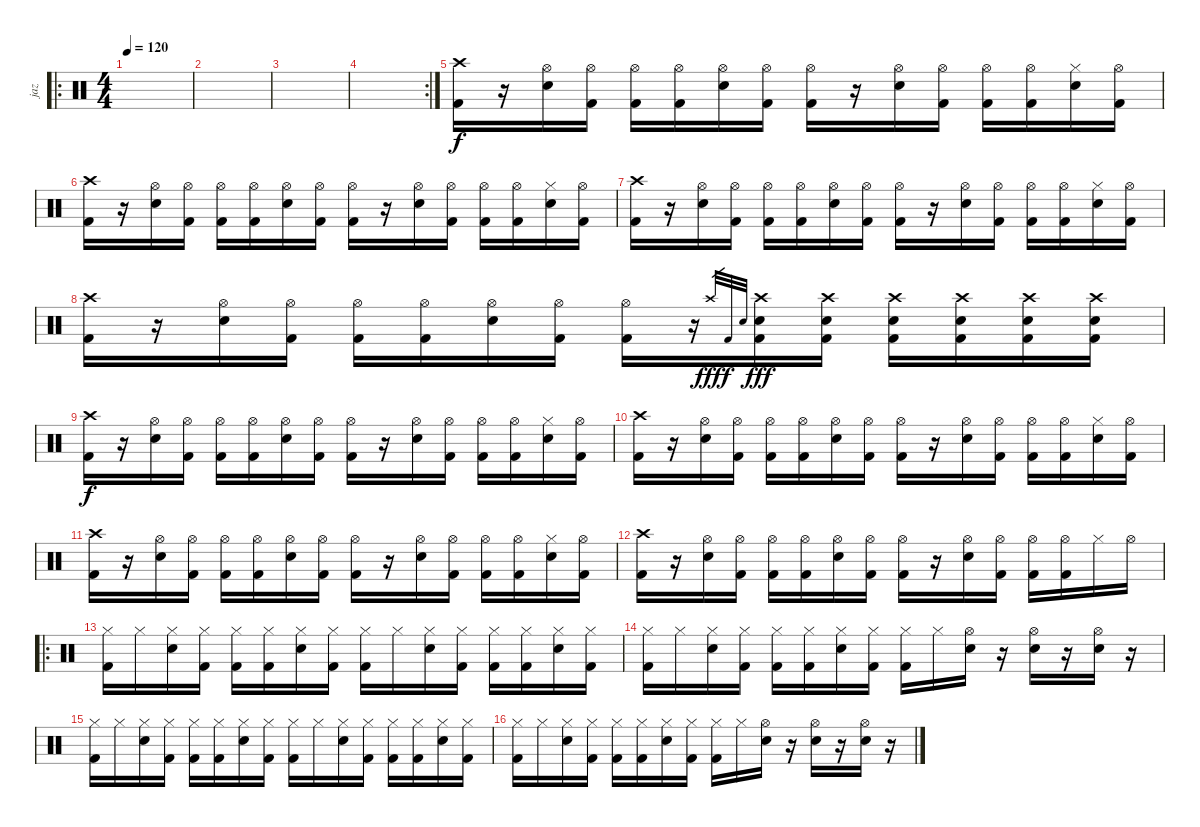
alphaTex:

\track ("jaz" "jaz") {instrument percussion}
\staff {score}
\articulation defaults
\ro
\ts (4 4)
\tempo 120
\clef neutral
\ks c
|
|
|
\rc 2
|
("Crash high (hit)" "Kick (hit) 2").16 r.16 ("Hi-Hat (open)" "Electric Snare (hit)").16 ("Hi-Hat (open)" "Kick (hit) 2").16 ("Hi-Hat (open)" "Kick (hit) 2").16 ("Hi-Hat (open)" "Kick (hit) 2").16 ("Hi-Hat (open)" "Electric Snare (hit)").16 ("Hi-Hat (open)" "Kick (hit) 2").16 ("Hi-Hat (open)" "Kick (hit) 2").16 r.16 ("Hi-Hat (open)" "Electric Snare (hit)").16 ("Hi-Hat (open)" "Kick (hit) 2").16 ("Hi-Hat (open)" "Kick (hit) 2").16 ("Hi-Hat (open)" "Kick (hit) 2").16 ("Hi-Hat (closed)" "Electric Snare (hit)").16 ("Hi-Hat (open)" "Kick (hit) 2").16 |
("Crash high (hit)" "Kick (hit) 2").16 r.16 ("Hi-Hat (open)" "Electric Snare (hit)").16 ("Hi-Hat (open)" "Kick (hit) 2").16 ("Hi-Hat (open)" "Kick (hit) 2").16 ("Hi-Hat (open)" "Kick (hit) 2").16 ("Hi-Hat (open)" "Electric Snare (hit)").16 ("Hi-Hat (open)" "Kick (hit) 2").16 ("Hi-Hat (open)" "Kick (hit) 2").16 r.16 ("Hi-Hat (open)" "Electric Snare (hit)").16 ("Hi-Hat (open)" "Kick (hit) 2").16 ("Hi-Hat (open)" "Kick (hit) 2").16 ("Hi-Hat (open)" "Kick (hit) 2").16 ("Hi-Hat (closed)" "Electric Snare (hit)").16 ("Hi-Hat (open)" "Kick (hit) 2").16 |
("Crash high (hit)" "Kick (hit) 2").16 r.16 ("Hi-Hat (open)" "Electric Snare (hit)").16 ("Hi-Hat (open)" "Kick (hit) 2").16 ("Hi-Hat (open)" "Kick (hit) 2").16 ("Hi-Hat (open)" "Kick (hit) 2").16 ("Hi-Hat (open)" "Electric Snare (hit)").16 ("Hi-Hat (open)" "Kick (hit) 2").16 ("Hi-Hat (open)" "Kick (hit) 2").16 r.16 ("Hi-Hat (open)" "Electric Snare (hit)").16 ("Hi-Hat (open)" "Kick (hit) 2").16 ("Hi-Hat (open)" "Kick (hit) 2").16 ("Hi-Hat (open)" "Kick (hit) 2").16 ("Hi-Hat (closed)" "Electric Snare (hit)").16 ("Hi-Hat (open)" "Kick (hit) 2").16 |
("Crash high (hit)" "Kick (hit) 2").16 r.16 ("Hi-Hat (open)" "Electric Snare (hit)").16 ("Hi-Hat (open)" "Kick (hit) 2").16 ("Hi-Hat (open)" "Kick (hit) 2").16 ("Hi-Hat (open)" "Kick (hit) 2").16 ("Hi-Hat (open)" "Electric Snare (hit)").16 ("Hi-Hat (open)" "Kick (hit) 2").16 ("Hi-Hat (open)" "Kick (hit) 2").16 r.16 "Crash high (hit)".32{gr dy fff} "Kick (hit) 2".32{gr dy f} "Electric Snare (hit)".32{gr} ("Crash high (hit)" "Kick (hit) 2" "Electric Snare (hit)").16{dy fff} ("Crash high (hit)" "Kick (hit) 2" "Electric Snare (hit)").16 ("Crash high (hit)" "Kick (hit) 2" "Electric Snare (hit)").16 ("Crash high (hit)" "Kick (hit) 2" "Electric Snare (hit)").16 ("Crash high (hit)" "Kick (hit) 2" "Electric Snare (hit)").16 ("Crash high (hit)" "Kick (hit) 2" "Electric Snare (hit)").16 |
("Crash high (hit)" "Kick (hit) 2").16{dy f} r.16 ("Hi-Hat (open)" "Electric Snare (hit)").16 ("Hi-Hat (open)" "Kick (hit) 2").16 ("Hi-Hat (open)" "Kick (hit) 2").16 ("Hi-Hat (open)" "Kick (hit) 2").16 ("Hi-Hat (open)" "Electric Snare (hit)").16 ("Hi-Hat (open)" "Kick (hit) 2").16 ("Hi-Hat (open)" "Kick (hit) 2").16 r.16 ("Hi-Hat (open)" "Electric Snare (hit)").16 ("Hi-Hat (open)" "Kick (hit) 2").16 ("Hi-Hat (open)" "Kick (hit) 2").16 ("Hi-Hat (open)" "Kick (hit) 2").16 ("Hi-Hat (closed)" "Electric Snare (hit)").16 ("Hi-Hat (open)" "Kick (hit) 2").16 |
("Crash high (hit)" "Kick (hit) 2").16 r.16 ("Hi-Hat (open)" "Electric Snare (hit)").16 ("Hi-Hat (open)" "Kick (hit) 2").16 ("Hi-Hat (open)" "Kick (hit) 2").16 ("Hi-Hat (open)" "Kick (hit) 2").16 ("Hi-Hat (open)" "Electric Snare (hit)").16 ("Hi-Hat (open)" "Kick (hit) 2").16 ("Hi-Hat (open)" "Kick (hit) 2").16 r.16 ("Hi-Hat (open)" "Electric Snare (hit)").16 ("Hi-Hat (open)" "Kick (hit) 2").16 ("Hi-Hat (open)" "Kick (hit) 2").16 ("Hi-Hat (open)" "Kick (hit) 2").16 ("Hi-Hat (closed)" "Electric Snare (hit)").16 ("Hi-Hat (open)" "Kick (hit) 2").16 |
("Crash high (hit)" "Kick (hit) 2").16 r.16 ("Hi-Hat (open)" "Electric Snare (hit)").16 ("Hi-Hat (open)" "Kick (hit) 2").16 ("Hi-Hat (open)" "Kick (hit) 2").16 ("Hi-Hat (open)" "Kick (hit) 2").16 ("Hi-Hat (open)" "Electric Snare (hit)").16 ("Hi-Hat (open)" "Kick (hit) 2").16 ("Hi-Hat (open)" "Kick (hit) 2").16 r.16 ("Hi-Hat (open)" "Electric Snare (hit)").16 ("Hi-Hat (open)" "Kick (hit) 2").16 ("Hi-Hat (open)" "Kick (hit) 2").16 ("Hi-Hat (open)" "Kick (hit) 2").16 ("Hi-Hat (closed)" "Electric Snare (hit)").16 ("Hi-Hat (open)" "Kick (hit) 2").16 |
("Crash high (hit)" "Kick (hit) 2").16 r.16 ("Hi-Hat (open)" "Electric Snare (hit)").16 ("Hi-Hat (open)" "Kick (hit) 2").16 ("Hi-Hat (open)" "Kick (hit) 2").16 ("Hi-Hat (open)" "Kick (hit) 2").16 ("Hi-Hat (open)" "Electric Snare (hit)").16 ("Hi-Hat (open)" "Kick (hit) 2").16 ("Hi-Hat (open)" "Kick (hit) 2").16 r.16 ("Hi-Hat (open)" "Electric Snare (hit)").16 ("Hi-Hat (open)" "Kick (hit) 2").16 ("Hi-Hat (open)" "Kick (hit) 2").16 ("Hi-Hat (open)" "Kick (hit) 2").16 "Hi-Hat (closed)".16 "Hi-Hat (open)".16 |
\ro
("Hi-Hat (closed)" "Kick (hit) 2").16 "Hi-Hat (closed)".16 ("Hi-Hat (closed)" "Electric Snare (hit)").16 ("Hi-Hat (closed)" "Kick (hit) 2").16 ("Hi-Hat (closed)" "Kick (hit) 2").16 ("Hi-Hat (closed)" "Kick (hit) 2").16 ("Hi-Hat (closed)" "Electric Snare (hit)").16 ("Hi-Hat (closed)" "Kick (hit) 2").16 ("Hi-Hat (closed)" "Kick (hit) 2").16 "Hi-Hat (closed)".16 ("Hi-Hat (closed)" "Electric Snare (hit)").16 ("Hi-Hat (closed)" "Kick (hit) 2").16 ("Hi-Hat (closed)" "Kick (hit) 2").16 ("Hi-Hat (closed)" "Kick (hit) 2").16 ("Hi-Hat (closed)" "Electric Snare (hit)").16 ("Hi-Hat (closed)" "Kick (hit) 2").16 |
("Hi-Hat (closed)" "Kick (hit) 2").16 "Hi-Hat (closed)".16 ("Hi-Hat (closed)" "Electric Snare (hit)").16 ("Hi-Hat (closed)" "Kick (hit) 2").16 ("Hi-Hat (closed)" "Kick (hit) 2").16 ("Hi-Hat (closed)" "Kick (hit) 2").16 ("Hi-Hat (closed)" "Electric Snare (hit)").16 ("Hi-Hat (closed)" "Kick (hit) 2").16 ("Hi-Hat (closed)" "Kick (hit) 2").16 "Hi-Hat (closed)".16 ("Hi-Hat (open)" "Electric Snare (hit)").16 r.16 ("Hi-Hat (open)" "Electric Snare (hit)").16 r.16 ("Hi-Hat (open)" "Electric Snare (hit)").16 r.16 |
("Hi-Hat (closed)" "Kick (hit) 2").16 "Hi-Hat (closed)".16 ("Hi-Hat (closed)" "Electric Snare (hit)").16 ("Hi-Hat (closed)" "Kick (hit) 2").16 ("Hi-Hat (closed)" "Kick (hit) 2").16 ("Hi-Hat (closed)" "Kick (hit) 2").16 ("Hi-Hat (closed)" "Electric Snare (hit)").16 ("Hi-Hat (closed)" "Kick (hit) 2").16 ("Hi-Hat (closed)" "Kick (hit) 2").16 "Hi-Hat (closed)".16 ("Hi-Hat (closed)" "Electric Snare (hit)").16 ("Hi-Hat (closed)" "Kick (hit) 2").16 ("Hi-Hat (closed)" "Kick (hit) 2").16 ("Hi-Hat (closed)" "Kick (hit) 2").16 ("Hi-Hat (closed)" "Electric Snare (hit)").16 ("Hi-Hat (closed)" "Kick (hit) 2").16 |
("Hi-Hat (closed)" "Kick (hit) 2").16 "Hi-Hat (closed)".16 ("Hi-Hat (closed)" "Electric Snare (hit)").16 ("Hi-Hat (closed)" "Kick (hit) 2").16 ("Hi-Hat (closed)" "Kick (hit) 2").16 ("Hi-Hat (closed)" "Kick (hit) 2").16 ("Hi-Hat (closed)" "Electric Snare (hit)").16 ("Hi-Hat (closed)" "Kick (hit) 2").16 ("Hi-Hat (closed)" "Kick (hit) 2").16 "Hi-Hat (closed)".16 ("Hi-Hat (open)" "Electric Snare (hit)").16 r.16 ("Hi-Hat (open)" "Electric Snare (hit)").16 r.16 ("Hi-Hat (open)" "Electric Snare (hit)").16 r.16
